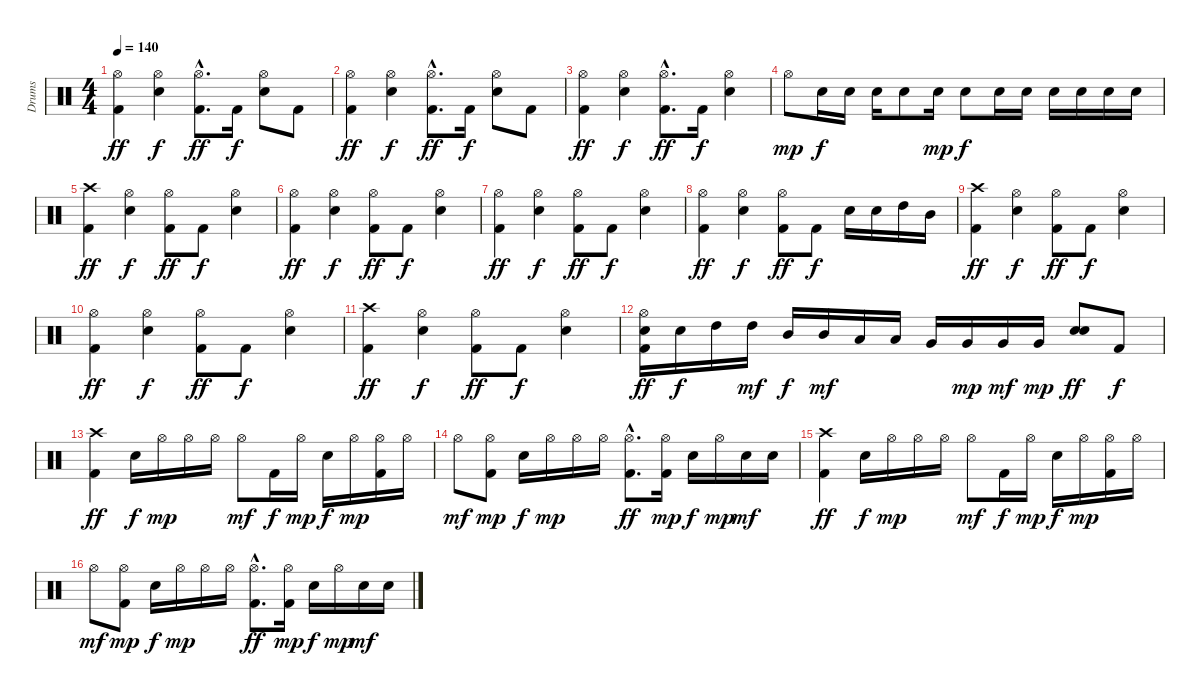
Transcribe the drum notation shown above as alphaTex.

\track ("Drums" "Drums") {instrument percussion}
\staff {score}
\articulation defaults
\ts (4 4)
\tempo 140
\clef neutral
\ks c
("Hi-Hat (open)" "Kick (hit) 2").4{dy ff} ("Hi-Hat (open)" "Electric Snare (hit)").4{dy f} ("Hi-Hat (open)"{hac} "Kick (hit) 2"{hac}).8{d dy ff} "Kick (hit) 2".16{dy f} ("Hi-Hat (open)" "Electric Snare (hit)").8 "Kick (hit) 2".8 |
("Hi-Hat (open)" "Kick (hit) 2").4{dy ff} ("Hi-Hat (open)" "Electric Snare (hit)").4{dy f} ("Hi-Hat (open)"{hac} "Kick (hit) 2"{hac}).8{d dy ff} "Kick (hit) 2".16{dy f} ("Hi-Hat (open)" "Electric Snare (hit)").8 "Kick (hit) 2".8 |
("Hi-Hat (open)" "Kick (hit) 2").4{dy ff} ("Hi-Hat (open)" "Electric Snare (hit)").4{dy f} ("Hi-Hat (open)"{hac} "Kick (hit) 2"{hac}).8{d dy ff} "Kick (hit) 2".16{dy f} ("Hi-Hat (open)" "Electric Snare (hit)").4 |
"Hi-Hat (open)".8{dy mp} "Electric Snare (hit)".16{dy f} "Electric Snare (hit)".16 "Electric Snare (hit)".16 "Electric Snare (hit)".8 "Electric Snare (hit)".16{dy mp} "Electric Snare (hit)".8{dy f} "Electric Snare (hit)".16 "Electric Snare (hit)".16 "Electric Snare (hit)".16 "Electric Snare (hit)".16 "Electric Snare (hit)".16 "Electric Snare (hit)".16 |
("Crash high (hit)" "Kick (hit) 2").4{dy ff} ("Hi-Hat (open)" "Electric Snare (hit)").4{dy f} ("Hi-Hat (open)" "Kick (hit) 2").8{dy ff} "Kick (hit) 2".8{dy f} ("Hi-Hat (open)" "Electric Snare (hit)").4 |
("Hi-Hat (open)" "Kick (hit) 2").4{dy ff} ("Hi-Hat (open)" "Electric Snare (hit)").4{dy f} ("Hi-Hat (open)" "Kick (hit) 2").8{dy ff} "Kick (hit) 2".8{dy f} ("Hi-Hat (open)" "Electric Snare (hit)").4 |
("Hi-Hat (open)" "Kick (hit) 2").4{dy ff} ("Hi-Hat (open)" "Electric Snare (hit)").4{dy f} ("Hi-Hat (open)" "Kick (hit) 2").8{dy ff} "Kick (hit) 2".8{dy f} ("Hi-Hat (open)" "Electric Snare (hit)").4 |
("Hi-Hat (open)" "Kick (hit) 2").4{dy ff} ("Hi-Hat (open)" "Electric Snare (hit)").4{dy f} ("Hi-Hat (open)" "Kick (hit) 2").8{dy ff} "Kick (hit) 2".8{dy f} "Electric Snare (hit)".16 "Electric Snare (hit)".16 "High Tom (hit)".16 "Mid Tom (hit)".16 |
("Crash high (hit)" "Kick (hit) 2").4{dy ff} ("Hi-Hat (open)" "Electric Snare (hit)").4{dy f} ("Hi-Hat (open)" "Kick (hit) 2").8{dy ff} "Kick (hit) 2".8{dy f} ("Hi-Hat (open)" "Electric Snare (hit)").4 |
("Hi-Hat (open)" "Kick (hit) 2").4{dy ff} ("Hi-Hat (open)" "Electric Snare (hit)").4{dy f} ("Hi-Hat (open)" "Kick (hit) 2").8{dy ff} "Kick (hit) 2".8{dy f} ("Hi-Hat (open)" "Electric Snare (hit)").4 |
("Crash high (hit)" "Kick (hit) 2").4{dy ff} ("Hi-Hat (open)" "Electric Snare (hit)").4{dy f} ("Hi-Hat (open)" "Kick (hit) 2").8{dy ff} "Kick (hit) 2".8{dy f} ("Hi-Hat (open)" "Electric Snare (hit)").4 |
("Hi-Hat (open)" "Electric Snare (hit)" "Kick (hit) 2").16{dy ff} "Electric Snare (hit)".16{dy f} "High Tom (hit)".16 "High Tom (hit)".16{dy mf} "Mid Tom (hit)".16{dy f} "Mid Tom (hit)".16{dy mf} "Low Tom (hit)".16 "Low Tom (hit)".16 "Very Low Tom (hit)".16 "Very Low Tom (hit)".16{dy mp} "Very Low Tom (hit)".16{dy mf} "Very Low Tom (hit)".16{dy mp} ("Electric Snare (hit)" "Electric Snare (hit)").8{dy ff} "Kick (hit) 2".8{dy f} |
("Crash high (hit)" "Kick (hit) 2").4{dy ff} "Electric Snare (hit)".16{dy f} "Hi-Hat (open)".16{dy mp} "Hi-Hat (open)".16 "Hi-Hat (open)".16 "Hi-Hat (open)".8{dy mf} "Kick (hit) 2".16{dy f} "Hi-Hat (open)".16{dy mp} "Electric Snare (hit)".16{dy f} "Hi-Hat (open)".16{dy mp} ("Hi-Hat (open)" "Kick (hit) 2").16 "Hi-Hat (open)".16 |
"Hi-Hat (open)".8{dy mf} ("Hi-Hat (open)" "Kick (hit) 2").8{dy mp} "Electric Snare (hit)".16{dy f} "Hi-Hat (open)".16{dy mp} "Hi-Hat (open)".16 "Hi-Hat (open)".16 ("Hi-Hat (open)"{hac} "Kick (hit) 2"{hac}).8{d dy ff} ("Hi-Hat (open)" "Kick (hit) 2").16{dy mp} "Electric Snare (hit)".16{dy f} "Hi-Hat (open)".16{dy mp} "Electric Snare (hit)".16{dy mf} "Electric Snare (hit)".16 |
("Crash high (hit)" "Kick (hit) 2").4{dy ff} "Electric Snare (hit)".16{dy f} "Hi-Hat (open)".16{dy mp} "Hi-Hat (open)".16 "Hi-Hat (open)".16 "Hi-Hat (open)".8{dy mf} "Kick (hit) 2".16{dy f} "Hi-Hat (open)".16{dy mp} "Electric Snare (hit)".16{dy f} "Hi-Hat (open)".16{dy mp} ("Hi-Hat (open)" "Kick (hit) 2").16 "Hi-Hat (open)".16 |
"Hi-Hat (open)".8{dy mf} ("Hi-Hat (open)" "Kick (hit) 2").8{dy mp} "Electric Snare (hit)".16{dy f} "Hi-Hat (open)".16{dy mp} "Hi-Hat (open)".16 "Hi-Hat (open)".16 ("Hi-Hat (open)"{hac} "Kick (hit) 2"{hac}).8{d dy ff} ("Hi-Hat (open)" "Kick (hit) 2").16{dy mp} "Electric Snare (hit)".16{dy f} "Hi-Hat (open)".16{dy mp} "Electric Snare (hit)".16{dy mf} "Electric Snare (hit)".16
